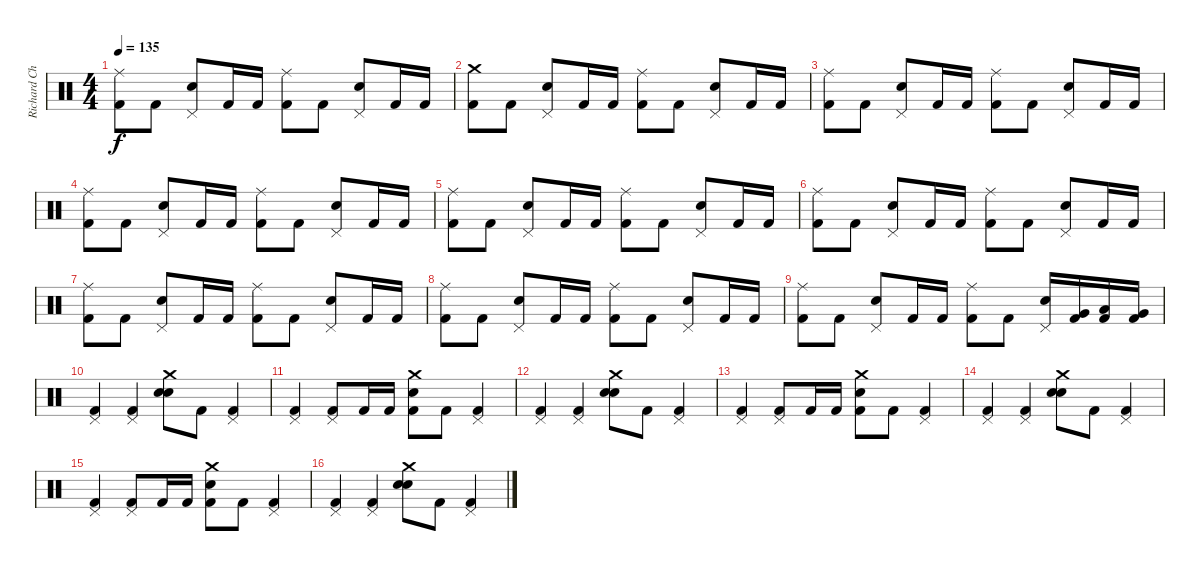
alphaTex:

\track ("Richard Christy" "Richard Ch") {instrument percussion}
\staff {score}
\articulation defaults
\ts (4 4)
\tempo 135
\clef neutral
\ks c
("Ride (middle)" "Kick (hit) 2").8{dy f} "Kick (hit) 2".8 ("Snare (hit) 2" "Pedal Hi-Hat (hit)").8 "Kick (hit) 2".16 "Kick (hit) 2".16 ("Ride (middle)" "Kick (hit) 2").8 "Kick (hit) 2".8 ("Snare (hit) 2" "Pedal Hi-Hat (hit)").8 "Kick (hit) 2".16 "Kick (hit) 2".16 |
("Crash medium (hit)" "Kick (hit) 2").8 "Kick (hit) 2".8 ("Snare (hit) 2" "Pedal Hi-Hat (hit)").8 "Kick (hit) 2".16 "Kick (hit) 2".16 ("Ride (middle)" "Kick (hit) 2").8 "Kick (hit) 2".8 ("Snare (hit) 2" "Pedal Hi-Hat (hit)").8 "Kick (hit) 2".16 "Kick (hit) 2".16 |
("Ride (middle)" "Kick (hit) 2").8 "Kick (hit) 2".8 ("Snare (hit) 2" "Pedal Hi-Hat (hit)").8 "Kick (hit) 2".16 "Kick (hit) 2".16 ("Ride (middle)" "Kick (hit) 2").8 "Kick (hit) 2".8 ("Snare (hit) 2" "Pedal Hi-Hat (hit)").8 "Kick (hit) 2".16 "Kick (hit) 2".16 |
("Ride (middle)" "Kick (hit) 2").8 "Kick (hit) 2".8 ("Snare (hit) 2" "Pedal Hi-Hat (hit)").8 "Kick (hit) 2".16 "Kick (hit) 2".16 ("Ride (middle)" "Kick (hit) 2").8 "Kick (hit) 2".8 ("Snare (hit) 2" "Pedal Hi-Hat (hit)").8 "Kick (hit) 2".16 "Kick (hit) 2".16 |
("Ride (middle)" "Kick (hit) 2").8 "Kick (hit) 2".8 ("Snare (hit) 2" "Pedal Hi-Hat (hit)").8 "Kick (hit) 2".16 "Kick (hit) 2".16 ("Ride (middle)" "Kick (hit) 2").8 "Kick (hit) 2".8 ("Snare (hit) 2" "Pedal Hi-Hat (hit)").8 "Kick (hit) 2".16 "Kick (hit) 2".16 |
("Ride (middle)" "Kick (hit) 2").8 "Kick (hit) 2".8 ("Snare (hit) 2" "Pedal Hi-Hat (hit)").8 "Kick (hit) 2".16 "Kick (hit) 2".16 ("Ride (middle)" "Kick (hit) 2").8 "Kick (hit) 2".8 ("Snare (hit) 2" "Pedal Hi-Hat (hit)").8 "Kick (hit) 2".16 "Kick (hit) 2".16 |
("Ride (middle)" "Kick (hit) 2").8 "Kick (hit) 2".8 ("Snare (hit) 2" "Pedal Hi-Hat (hit)").8 "Kick (hit) 2".16 "Kick (hit) 2".16 ("Ride (middle)" "Kick (hit) 2").8 "Kick (hit) 2".8 ("Snare (hit) 2" "Pedal Hi-Hat (hit)").8 "Kick (hit) 2".16 "Kick (hit) 2".16 |
("Ride (middle)" "Kick (hit) 2").8 "Kick (hit) 2".8 ("Snare (hit) 2" "Pedal Hi-Hat (hit)").8 "Kick (hit) 2".16 "Kick (hit) 2".16 ("Ride (middle)" "Kick (hit) 2").8 "Kick (hit) 2".8 ("Snare (hit) 2" "Pedal Hi-Hat (hit)").8 "Kick (hit) 2".16 "Kick (hit) 2".16 |
("Ride (middle)" "Kick (hit) 2").8 "Kick (hit) 2".8 ("Snare (hit) 2" "Pedal Hi-Hat (hit)").8 "Kick (hit) 2".16 "Kick (hit) 2".16 ("Ride (middle)" "Kick (hit) 2").8 "Kick (hit) 2".8 ("Snare (hit) 2" "Pedal Hi-Hat (hit)").16 ("Very Low Tom (hit)" "Kick (hit) 2").16 ("Low Tom (hit)" "Kick (hit) 2").16 ("Very Low Tom (hit)" "Kick (hit) 2").16 |
("Pedal Hi-Hat (hit)" "Kick (hit) 2").4 ("Pedal Hi-Hat (hit)" "Kick (hit) 2").4 ("Snare (hit) 2" "Crash medium (hit)" "Snare (hit) 2").8 "Kick (hit) 2".8 ("Pedal Hi-Hat (hit)" "Kick (hit) 2").4 |
("Pedal Hi-Hat (hit)" "Kick (hit) 2").4 ("Pedal Hi-Hat (hit)" "Kick (hit) 2").8 "Kick (hit) 2".16 "Kick (hit) 2".16 ("Snare (hit) 2" "Crash medium (hit)" "Kick (hit) 2").8 "Kick (hit) 2".8 ("Pedal Hi-Hat (hit)" "Kick (hit) 2").4 |
("Pedal Hi-Hat (hit)" "Kick (hit) 2").4 ("Pedal Hi-Hat (hit)" "Kick (hit) 2").4 ("Snare (hit) 2" "Crash medium (hit)" "Snare (hit) 2").8 "Kick (hit) 2".8 ("Pedal Hi-Hat (hit)" "Kick (hit) 2").4 |
("Pedal Hi-Hat (hit)" "Kick (hit) 2").4 ("Pedal Hi-Hat (hit)" "Kick (hit) 2").8 "Kick (hit) 2".16 "Kick (hit) 2".16 ("Snare (hit) 2" "Crash medium (hit)" "Kick (hit) 2").8 "Kick (hit) 2".8 ("Pedal Hi-Hat (hit)" "Kick (hit) 2").4 |
("Pedal Hi-Hat (hit)" "Kick (hit) 2").4 ("Pedal Hi-Hat (hit)" "Kick (hit) 2").4 ("Snare (hit) 2" "Crash medium (hit)" "Snare (hit) 2").8 "Kick (hit) 2".8 ("Pedal Hi-Hat (hit)" "Kick (hit) 2").4 |
("Pedal Hi-Hat (hit)" "Kick (hit) 2").4 ("Pedal Hi-Hat (hit)" "Kick (hit) 2").8 "Kick (hit) 2".16 "Kick (hit) 2".16 ("Snare (hit) 2" "Crash medium (hit)" "Kick (hit) 2").8 "Kick (hit) 2".8 ("Pedal Hi-Hat (hit)" "Kick (hit) 2").4 |
("Pedal Hi-Hat (hit)" "Kick (hit) 2").4 ("Pedal Hi-Hat (hit)" "Kick (hit) 2").4 ("Snare (hit) 2" "Crash medium (hit)" "Snare (hit) 2").8 "Kick (hit) 2".8 ("Pedal Hi-Hat (hit)" "Kick (hit) 2").4
